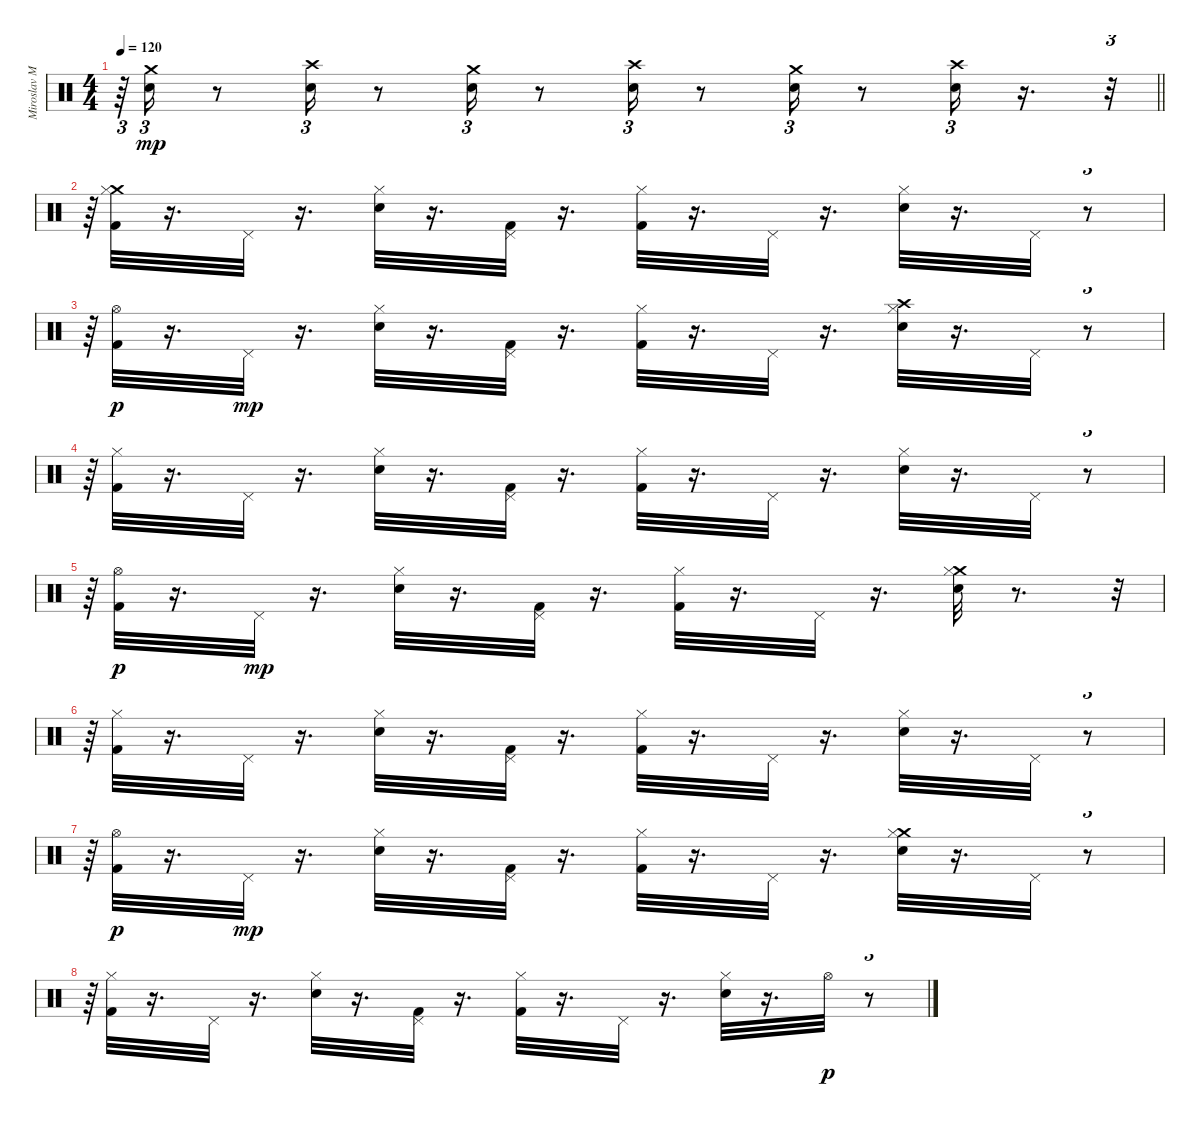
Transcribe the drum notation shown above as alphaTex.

\track ("Miroslav Milatovic-Vicko-bubnjevi" "Miroslav M") {instrument percussion}
\staff {score}
\articulation defaults
\ts (4 4)
\tempo 120
\clef neutral
\barLineRight lightlight
\ks c
r.64{tu (3 2) dy p} ("Electric Snare (hit)" "Crash medium (hit)").16{tu (3 2) dy mp} r.8 ("Electric Snare (hit)" "Crash high (hit)").16{tu (3 2)} r.8 ("Electric Snare (hit)" "Crash medium (hit)").16{tu (3 2)} r.8 ("Electric Snare (hit)" "Crash high (hit)").16{tu (3 2)} r.8 ("Electric Snare (hit)" "Crash medium (hit)").16{tu (3 2)} r.8 ("Electric Snare (hit)" "Crash high (hit)").16{tu (3 2)} r.16{d} r.32{tu (3 2)} |
r.64{tu (3 2)} ("Crash medium (hit)" "Kick (hit) 2" "Hi-Hat (closed)").32 r.16{d} "Pedal Hi-Hat (hit)".32 r.16{d} ("Electric Snare (hit)" "Hi-Hat (closed)").32 r.16{d} ("Kick (hit) 2" "Pedal Hi-Hat (hit)").32 r.16{d} ("Kick (hit) 2" "Hi-Hat (closed)").32 r.16{d} "Pedal Hi-Hat (hit)".32 r.16{d} ("Electric Snare (hit)" "Hi-Hat (closed)").32 r.16{d} "Pedal Hi-Hat (hit)".32 r.8{tu (3 2)} |
r.64{tu (3 2)} ("Hi-Hat (open)" "Kick (hit) 2").32{dy p} r.16{d} "Pedal Hi-Hat (hit)".32{dy mp} r.16{d} ("Hi-Hat (closed)" "Electric Snare (hit)").32 r.16{d} ("Pedal Hi-Hat (hit)" "Kick (hit) 2").32 r.16{d} ("Hi-Hat (closed)" "Kick (hit) 2").32 r.16{d} "Pedal Hi-Hat (hit)".32 r.16{d} ("Crash high (hit)" "Hi-Hat (closed)" "Electric Snare (hit)").32 r.16{d} "Pedal Hi-Hat (hit)".32 r.8{tu (3 2)} |
r.64{tu (3 2)} ("Hi-Hat (closed)" "Kick (hit) 2").32 r.16{d} "Pedal Hi-Hat (hit)".32 r.16{d} ("Hi-Hat (closed)" "Electric Snare (hit)").32 r.16{d} ("Pedal Hi-Hat (hit)" "Kick (hit) 2").32 r.16{d} ("Hi-Hat (closed)" "Kick (hit) 2").32 r.16{d} "Pedal Hi-Hat (hit)".32 r.16{d} ("Hi-Hat (closed)" "Electric Snare (hit)").32 r.16{d} "Pedal Hi-Hat (hit)".32 r.8{tu (3 2)} |
r.64{tu (3 2)} ("Hi-Hat (open)" "Kick (hit) 2").32{dy p} r.16{d} "Pedal Hi-Hat (hit)".32{dy mp} r.16{d} ("Electric Snare (hit)" "Hi-Hat (closed)").32 r.16{d} ("Kick (hit) 2" "Pedal Hi-Hat (hit)").32 r.16{d} ("Kick (hit) 2" "Hi-Hat (closed)").32 r.16{d} "Pedal Hi-Hat (hit)".32 r.16{d} ("Crash medium (hit)" "Electric Snare (hit)" "Hi-Hat (closed)").32 r.8{d} r.32{tu (3 2)} |
r.64{tu (3 2)} ("Hi-Hat (closed)" "Kick (hit) 2").32 r.16{d} "Pedal Hi-Hat (hit)".32 r.16{d} ("Hi-Hat (closed)" "Electric Snare (hit)").32 r.16{d} ("Pedal Hi-Hat (hit)" "Kick (hit) 2").32 r.16{d} ("Hi-Hat (closed)" "Kick (hit) 2").32 r.16{d} "Pedal Hi-Hat (hit)".32 r.16{d} ("Hi-Hat (closed)" "Electric Snare (hit)").32 r.16{d} "Pedal Hi-Hat (hit)".32 r.8{tu (3 2)} |
r.64{tu (3 2)} ("Hi-Hat (open)" "Kick (hit) 2").32{dy p} r.16{d} "Pedal Hi-Hat (hit)".32{dy mp} r.16{d} ("Electric Snare (hit)" "Hi-Hat (closed)").32 r.16{d} ("Kick (hit) 2" "Pedal Hi-Hat (hit)").32 r.16{d} ("Kick (hit) 2" "Hi-Hat (closed)").32 r.16{d} "Pedal Hi-Hat (hit)".32 r.16{d} ("Crash medium (hit)" "Electric Snare (hit)" "Hi-Hat (closed)").32 r.16{d} "Pedal Hi-Hat (hit)".32 r.8{tu (3 2)} |
r.64{tu (3 2)} ("Kick (hit) 2" "Hi-Hat (closed)").32 r.16{d} "Pedal Hi-Hat (hit)".32 r.16{d} ("Electric Snare (hit)" "Hi-Hat (closed)").32 r.16{d} ("Kick (hit) 2" "Pedal Hi-Hat (hit)").32 r.16{d} ("Kick (hit) 2" "Hi-Hat (closed)").32 r.16{d} "Pedal Hi-Hat (hit)".32 r.16{d} ("Electric Snare (hit)" "Hi-Hat (closed)").32 r.16{d} "Hi-Hat (open)".32{dy p} r.8{tu (3 2)}
